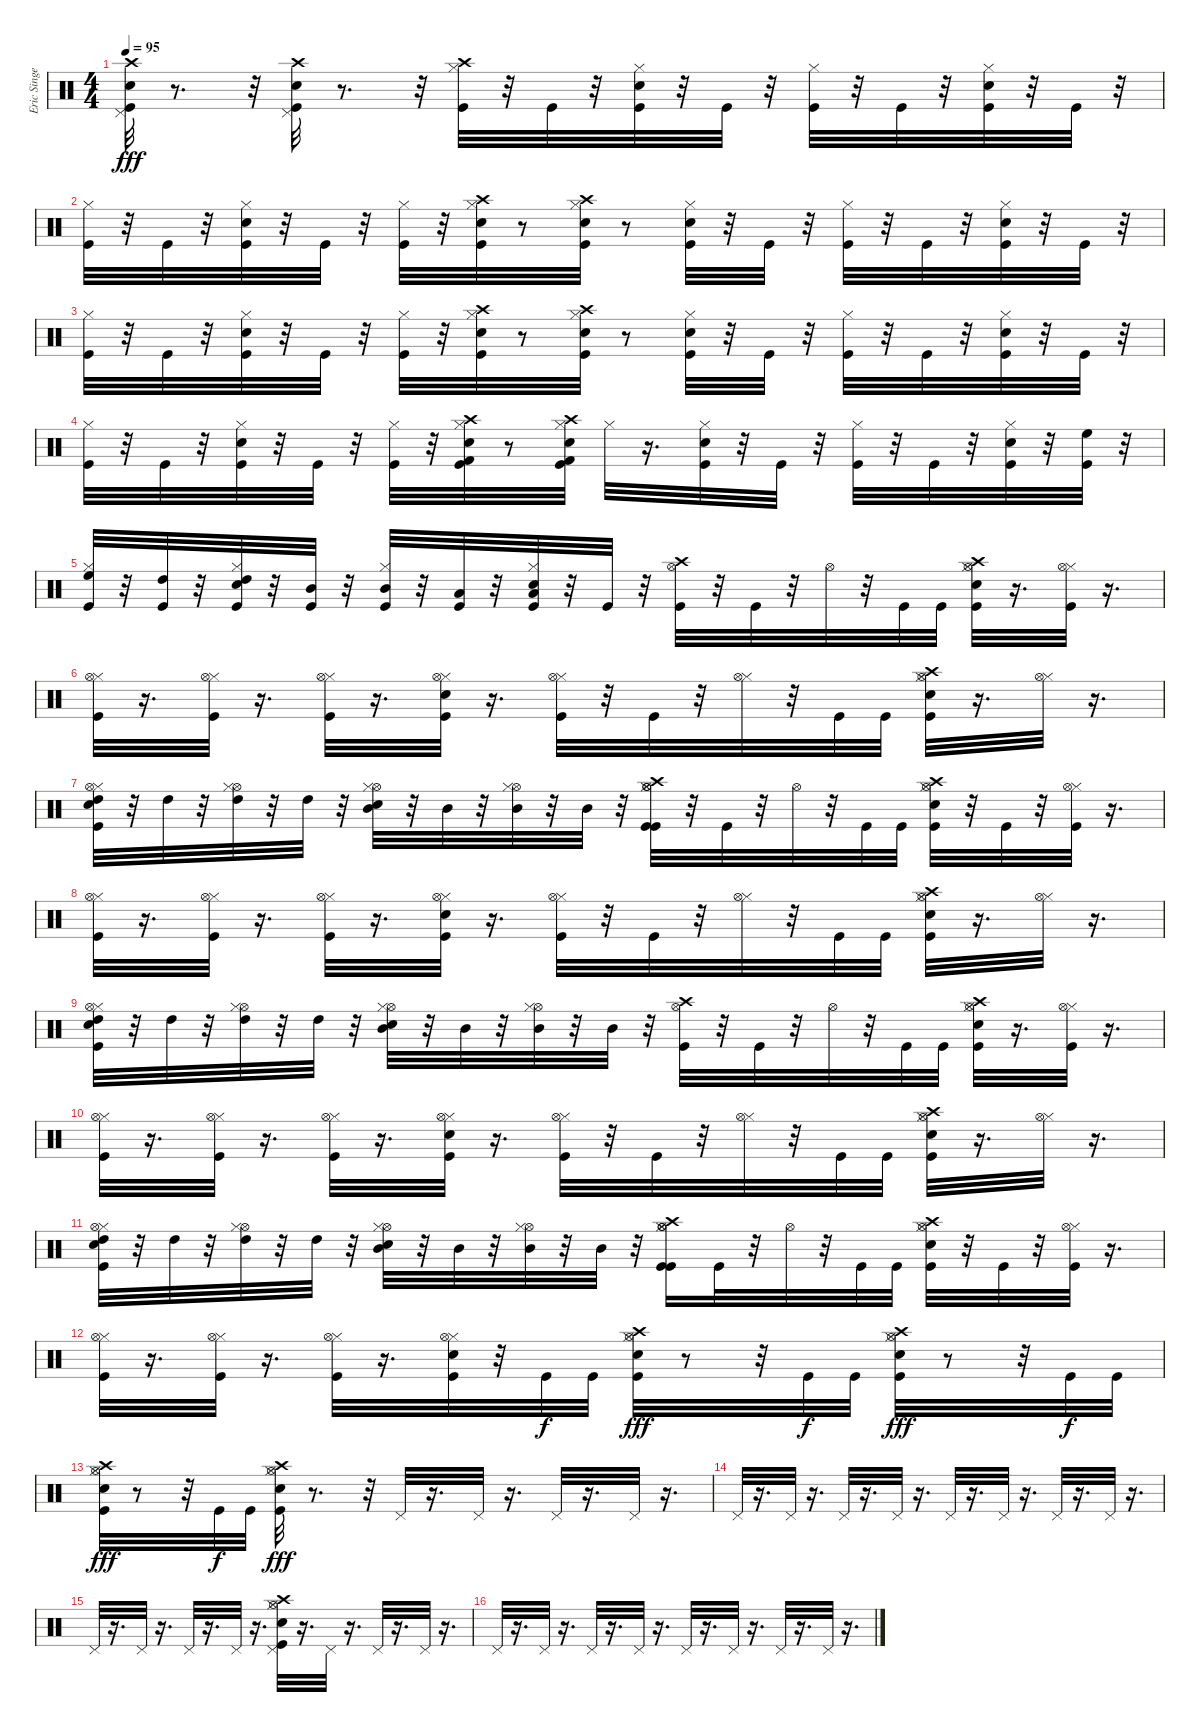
\track ("Eric Singer" "Eric Singe") {instrument percussion}
\staff {score}
\articulation defaults
\ts (4 4)
\tempo 95
\clef neutral
\ks c
("Pedal Hi-Hat (hit)" "Kick (hit)" "Snare (hit) 2" "Crash high (hit)").32{dy fff} r.8{d} r.32 ("Pedal Hi-Hat (hit)" "Kick (hit)" "Snare (hit) 2" "Crash high (hit)").32 r.8{d} r.32 ("Crash high (hit)" "Hi-Hat (closed)" "Kick (hit)").32 r.32 "Kick (hit)".32 r.32 ("Snare (hit) 2" "Hi-Hat (closed)" "Kick (hit)").32 r.32 "Kick (hit)".32 r.32 ("Hi-Hat (closed)" "Kick (hit)").32 r.32 "Kick (hit)".32 r.32 ("Snare (hit) 2" "Hi-Hat (closed)" "Kick (hit)").32 r.32 "Kick (hit)".32 r.32 |
("Hi-Hat (closed)" "Kick (hit)").32 r.32 "Kick (hit)".32 r.32 ("Snare (hit) 2" "Hi-Hat (closed)" "Kick (hit)").32 r.32 "Kick (hit)".32 r.32 ("Hi-Hat (closed)" "Kick (hit)").32 r.32 ("Hi-Hat (closed)" "Snare (hit) 2" "Crash high (hit)" "Kick (hit)").32 r.8 ("Kick (hit)" "Snare (hit) 2" "Hi-Hat (closed)" "Crash high (hit)").32 r.8 ("Snare (hit) 2" "Kick (hit)" "Hi-Hat (closed)").32 r.32 "Kick (hit)".32 r.32 ("Kick (hit)" "Hi-Hat (closed)").32 r.32 "Kick (hit)".32 r.32 ("Kick (hit)" "Hi-Hat (closed)" "Snare (hit) 2").32 r.32 "Kick (hit)".32 r.32 |
("Kick (hit)" "Hi-Hat (closed)").32 r.32 "Kick (hit)".32 r.32 ("Kick (hit)" "Hi-Hat (closed)" "Snare (hit) 2").32 r.32 "Kick (hit)".32 r.32 ("Kick (hit)" "Hi-Hat (closed)").32 r.32 ("Crash high (hit)" "Snare (hit) 2" "Hi-Hat (closed)" "Kick (hit)").32 r.8 ("Kick (hit)" "Snare (hit) 2" "Hi-Hat (closed)" "Crash high (hit)").32 r.8 ("Snare (hit) 2" "Kick (hit)" "Hi-Hat (closed)").32 r.32 "Kick (hit)".32 r.32 ("Kick (hit)" "Hi-Hat (closed)").32 r.32 "Kick (hit)".32 r.32 ("Snare (hit) 2" "Hi-Hat (closed)" "Kick (hit)").32 r.32 "Kick (hit)".32 r.32 |
("Hi-Hat (closed)" "Kick (hit)").32 r.32 "Kick (hit)".32 r.32 ("Snare (hit) 2" "Hi-Hat (closed)" "Kick (hit)").32 r.32 "Kick (hit)".32 r.32 ("Kick (hit)" "Hi-Hat (closed)").32 r.32 ("Snare (hit) 2" "Kick (hit) 2" "Hi-Hat (closed)" "Crash high (hit)" "Kick (hit)").32 r.8 ("Kick (hit)" "Kick (hit) 2" "Snare (hit) 2" "Hi-Hat (closed)" "Crash high (hit)").32 "Hi-Hat (closed)".32 r.16{d} ("Hi-Hat (closed)" "Snare (hit) 2" "Kick (hit)").32 r.32 "Kick (hit)".32 r.32 ("Kick (hit)" "Hi-Hat (closed)").32 r.32 "Kick (hit)".32 r.32 ("Hi-Hat (closed)" "Snare (hit) 2" "Kick (hit)").32 r.32 ("High Floor Tom (hit)" "Kick (hit)").32 r.32 |
("Hi-Hat (closed)" "Kick (hit)" "High Floor Tom (hit)").32 r.32 ("Kick (hit)" "High Tom (hit)").32 r.32 ("Snare (hit) 2" "Hi-Hat (closed)" "Kick (hit)" "High Tom (hit)").32 r.32 ("Kick (hit)" "Mid Tom (hit)").32 r.32 ("Hi-Hat (closed)" "Kick (hit)" "Mid Tom (hit)").32 r.32 ("Kick (hit)" "Low Tom (hit)").32 r.32 ("Snare (hit) 2" "Hi-Hat (closed)" "Kick (hit)" "Low Tom (hit)").32 r.32 "Kick (hit)".32 r.32 ("Crash high (hit)" "Hi-Hat (open)" "Kick (hit)").32 r.32 "Kick (hit)".32 r.32 "Hi-Hat (open)".32 r.32 "Kick (hit)".32 "Kick (hit)".32 ("Kick (hit)" "Hi-Hat (open)" "Hi-Hat (closed)" "Crash high (hit)" "Snare (hit) 2").32 r.16{d} ("Hi-Hat (closed)" "Kick (hit)" "Hi-Hat (open)").32 r.16{d} |
("Hi-Hat (closed)" "Kick (hit)" "Hi-Hat (open)").32 r.16{d} ("Hi-Hat (closed)" "Kick (hit)" "Hi-Hat (open)").32 r.16{d} ("Kick (hit)" "Hi-Hat (closed)" "Hi-Hat (open)").32 r.16{d} ("Hi-Hat (closed)" "Kick (hit)" "Snare (hit) 2" "Hi-Hat (open)").32 r.16{d} ("Kick (hit)" "Hi-Hat (closed)" "Hi-Hat (open)").32 r.32 "Kick (hit)".32 r.32 ("Hi-Hat (closed)" "Hi-Hat (open)").32 r.32 "Kick (hit)".32 "Kick (hit)".32 ("Kick (hit)" "Snare (hit) 2" "Crash high (hit)" "Hi-Hat (closed)" "Hi-Hat (open)").32 r.16{d} ("Hi-Hat (closed)" "Hi-Hat (open)").32 r.16{d} |
("Kick (hit)" "Snare (hit) 2" "High Tom (hit)" "Hi-Hat (closed)" "Hi-Hat (open)").32 r.32 "High Tom (hit)".32 r.32 ("Hi-Hat (open)" "Hi-Hat (closed)" "High Tom (hit)").32 r.32 "High Tom (hit)".32 r.32 ("Hi-Hat (open)" "Hi-Hat (closed)" "Snare (hit) 2" "Mid Tom (hit)").32 r.32 "Mid Tom (hit)".32 r.32 ("Hi-Hat (open)" "Hi-Hat (closed)" "Mid Tom (hit)").32 r.32 "Mid Tom (hit)".32 r.32 ("Hi-Hat (open)" "Hi-Hat (closed)" "Kick (hit)" "Crash high (hit)" "Hi-Hat (open)" "Kick (hit)").32 r.32 "Kick (hit)".32 r.32 "Hi-Hat (open)".32 r.32 "Kick (hit)".32 "Kick (hit)".32 ("Kick (hit)" "Hi-Hat (open)" "Hi-Hat (closed)" "Crash high (hit)" "Snare (hit) 2").32 r.32 "Kick (hit)".32 r.32 ("Hi-Hat (closed)" "Kick (hit)" "Hi-Hat (open)").32 r.16{d} |
("Hi-Hat (closed)" "Kick (hit)" "Hi-Hat (open)").32 r.16{d} ("Hi-Hat (closed)" "Kick (hit)" "Hi-Hat (open)").32 r.16{d} ("Kick (hit)" "Hi-Hat (closed)" "Hi-Hat (open)").32 r.16{d} ("Hi-Hat (closed)" "Kick (hit)" "Snare (hit) 2" "Hi-Hat (open)").32 r.16{d} ("Kick (hit)" "Hi-Hat (closed)" "Hi-Hat (open)").32 r.32 "Kick (hit)".32 r.32 ("Hi-Hat (closed)" "Hi-Hat (open)").32 r.32 "Kick (hit)".32 "Kick (hit)".32 ("Kick (hit)" "Snare (hit) 2" "Crash high (hit)" "Hi-Hat (closed)" "Hi-Hat (open)").32 r.16{d} ("Hi-Hat (closed)" "Hi-Hat (open)").32 r.16{d} |
("Kick (hit)" "Snare (hit) 2" "High Tom (hit)" "Hi-Hat (closed)" "Hi-Hat (open)").32 r.32 "High Tom (hit)".32 r.32 ("Hi-Hat (open)" "Hi-Hat (closed)" "High Tom (hit)").32 r.32 "High Tom (hit)".32 r.32 ("Hi-Hat (open)" "Hi-Hat (closed)" "Snare (hit) 2" "Mid Tom (hit)").32 r.32 "Mid Tom (hit)".32 r.32 ("Hi-Hat (open)" "Hi-Hat (closed)" "Mid Tom (hit)").32 r.32 "Mid Tom (hit)".32 r.32 ("Crash high (hit)" "Hi-Hat (open)" "Kick (hit)").32 r.32 "Kick (hit)".32 r.32 "Hi-Hat (open)".32 r.32 "Kick (hit)".32 "Kick (hit)".32 ("Kick (hit)" "Hi-Hat (open)" "Hi-Hat (closed)" "Crash high (hit)" "Snare (hit) 2").32 r.16{d} ("Hi-Hat (closed)" "Kick (hit)" "Hi-Hat (open)").32 r.16{d} |
("Hi-Hat (closed)" "Kick (hit)" "Hi-Hat (open)").32 r.16{d} ("Hi-Hat (closed)" "Kick (hit)" "Hi-Hat (open)").32 r.16{d} ("Kick (hit)" "Hi-Hat (closed)" "Hi-Hat (open)").32 r.16{d} ("Hi-Hat (closed)" "Kick (hit)" "Snare (hit) 2" "Hi-Hat (open)").32 r.16{d} ("Kick (hit)" "Hi-Hat (closed)" "Hi-Hat (open)").32 r.32 "Kick (hit)".32 r.32 ("Hi-Hat (closed)" "Hi-Hat (open)").32 r.32 "Kick (hit)".32 "Kick (hit)".32 ("Kick (hit)" "Snare (hit) 2" "Crash high (hit)" "Hi-Hat (closed)" "Hi-Hat (open)").32 r.16{d} ("Hi-Hat (closed)" "Hi-Hat (open)").32 r.16{d} |
("Kick (hit)" "Snare (hit) 2" "High Tom (hit)" "Hi-Hat (closed)" "Hi-Hat (open)").32 r.32 "High Tom (hit)".32 r.32 ("Hi-Hat (open)" "Hi-Hat (closed)" "High Tom (hit)").32 r.32 "High Tom (hit)".32 r.32 ("Hi-Hat (open)" "Hi-Hat (closed)" "Snare (hit) 2" "Mid Tom (hit)").32 r.32 "Mid Tom (hit)".32 r.32 ("Hi-Hat (open)" "Hi-Hat (closed)" "Mid Tom (hit)").32 r.32 "Mid Tom (hit)".32 r.32 ("Hi-Hat (open)" "Hi-Hat (closed)" "Kick (hit)" "Crash high (hit)" "Hi-Hat (open)" "Kick (hit)").16 "Kick (hit)".32 r.32 "Hi-Hat (open)".32 r.32 "Kick (hit)".32 "Kick (hit)".32 ("Kick (hit)" "Hi-Hat (open)" "Hi-Hat (closed)" "Crash high (hit)" "Snare (hit) 2").32 r.32 "Kick (hit)".32 r.32 ("Hi-Hat (closed)" "Kick (hit)" "Hi-Hat (open)").32 r.16{d} |
("Hi-Hat (closed)" "Kick (hit)" "Hi-Hat (open)").32 r.16{d} ("Hi-Hat (closed)" "Kick (hit)" "Hi-Hat (open)").32 r.16{d} ("Kick (hit)" "Hi-Hat (closed)" "Hi-Hat (open)").32 r.16{d} ("Hi-Hat (closed)" "Kick (hit)" "Snare (hit) 2" "Hi-Hat (open)").32 r.32 "Kick (hit)".32{dy f} "Kick (hit)".32 ("Snare (hit) 2" "Crash high (hit)" "Kick (hit)" "Hi-Hat (closed)" "Hi-Hat (open)").32{dy fff} r.8 r.32 "Kick (hit)".32{dy f} "Kick (hit)".32 ("Kick (hit)" "Snare (hit) 2" "Hi-Hat (closed)" "Crash high (hit)" "Hi-Hat (open)").32{dy fff} r.8 r.32 "Kick (hit)".32{dy f} "Kick (hit)".32 |
("Kick (hit)" "Snare (hit) 2" "Hi-Hat (closed)" "Hi-Hat (open)" "Crash high (hit)").32{dy fff} r.8 r.32 "Kick (hit)".32{dy f} "Kick (hit)".32 ("Kick (hit)" "Snare (hit) 2" "Hi-Hat (closed)" "Hi-Hat (open)" "Crash high (hit)").32{dy fff} r.8{d} r.32 "Pedal Hi-Hat (hit)".32 r.16{d} "Pedal Hi-Hat (hit)".32 r.16{d} "Pedal Hi-Hat (hit)".32 r.16{d} "Pedal Hi-Hat (hit)".32 r.16{d} |
"Pedal Hi-Hat (hit)".32 r.16{d} "Pedal Hi-Hat (hit)".32 r.16{d} "Pedal Hi-Hat (hit)".32 r.16{d} "Pedal Hi-Hat (hit)".32 r.16{d} "Pedal Hi-Hat (hit)".32 r.16{d} "Pedal Hi-Hat (hit)".32 r.16{d} "Pedal Hi-Hat (hit)".32 r.16{d} "Pedal Hi-Hat (hit)".32 r.16{d} |
"Pedal Hi-Hat (hit)".32 r.16{d} "Pedal Hi-Hat (hit)".32 r.16{d} "Pedal Hi-Hat (hit)".32 r.16{d} "Pedal Hi-Hat (hit)".32 r.16{d} ("Hi-Hat (open)" "Hi-Hat (closed)" "Crash high (hit)" "Kick (hit)" "Snare (hit) 2" "Pedal Hi-Hat (hit)").32 r.16{d} "Pedal Hi-Hat (hit)".32 r.16{d} "Pedal Hi-Hat (hit)".32 r.16{d} "Pedal Hi-Hat (hit)".32 r.16{d} |
"Pedal Hi-Hat (hit)".32 r.16{d} "Pedal Hi-Hat (hit)".32 r.16{d} "Pedal Hi-Hat (hit)".32 r.16{d} "Pedal Hi-Hat (hit)".32 r.16{d} "Pedal Hi-Hat (hit)".32 r.16{d} "Pedal Hi-Hat (hit)".32 r.16{d} "Pedal Hi-Hat (hit)".32 r.16{d} "Pedal Hi-Hat (hit)".32 r.16{d}
